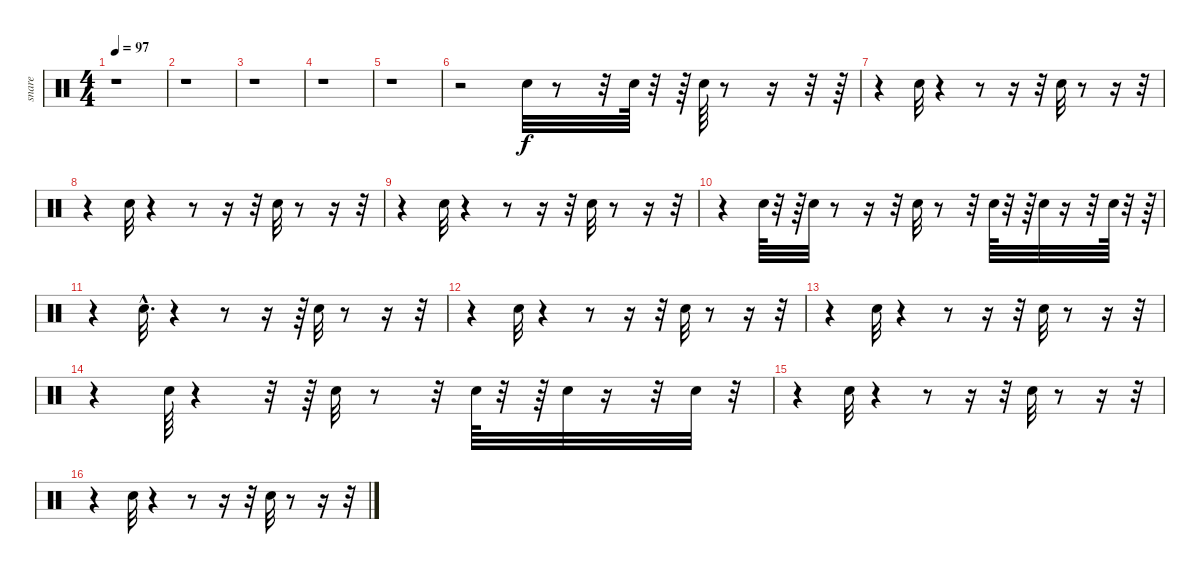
\track ("snare" "snare") {instrument percussion}
\staff {score}
\articulation defaults
\ts (4 4)
\tempo 97
\clef neutral
\ks c
r.1{dy f} |
r.1 |
r.1 |
r.1 |
r.1 |
r.2 "Electric Snare (hit)".32 r.8 r.32 "Electric Snare (hit)".64 r.32 r.64 "Electric Snare (hit)".64 r.8 r.16 r.32 r.64 |
r.4 "Electric Snare (hit)".32 r.4 r.8 r.16 r.32 "Electric Snare (hit)".32 r.8 r.16 r.32 |
r.4 "Electric Snare (hit)".32 r.4 r.8 r.16 r.32 "Electric Snare (hit)".32 r.8 r.16 r.32 |
r.4 "Electric Snare (hit)".32 r.4 r.8 r.16 r.32 "Electric Snare (hit)".32 r.8 r.16 r.32 |
r.4 "Electric Snare (hit)".64 r.32 r.64 "Electric Snare (hit)".32 r.8 r.16 r.32 "Electric Snare (hit)".32 r.8 r.32 "Electric Snare (hit)".64 r.32 r.64 "Electric Snare (hit)".32 r.16 r.32 "Electric Snare (hit)".64 r.32 r.64 |
r.4 "Electric Snare (hit)"{hac}.32{d} r.4 r.8 r.16 r.64 "Electric Snare (hit)".32 r.8 r.16 r.32 |
r.4 "Electric Snare (hit)".32 r.4 r.8 r.16 r.32 "Electric Snare (hit)".32 r.8 r.16 r.32 |
r.4 "Electric Snare (hit)".32 r.4 r.8 r.16 r.32 "Electric Snare (hit)".32 r.8 r.16 r.32 |
r.4 "Electric Snare (hit)".64 r.4 r.32 r.64 "Electric Snare (hit)".32 r.8 r.32 "Electric Snare (hit)".64 r.32 r.64 "Electric Snare (hit)".32 r.16 r.32 "Electric Snare (hit)".32 r.32 |
r.4 "Electric Snare (hit)".32 r.4 r.8 r.16 r.32 "Electric Snare (hit)".32 r.8 r.16 r.32 |
r.4 "Electric Snare (hit)".32 r.4 r.8 r.16 r.32 "Electric Snare (hit)".32 r.8 r.16 r.32
